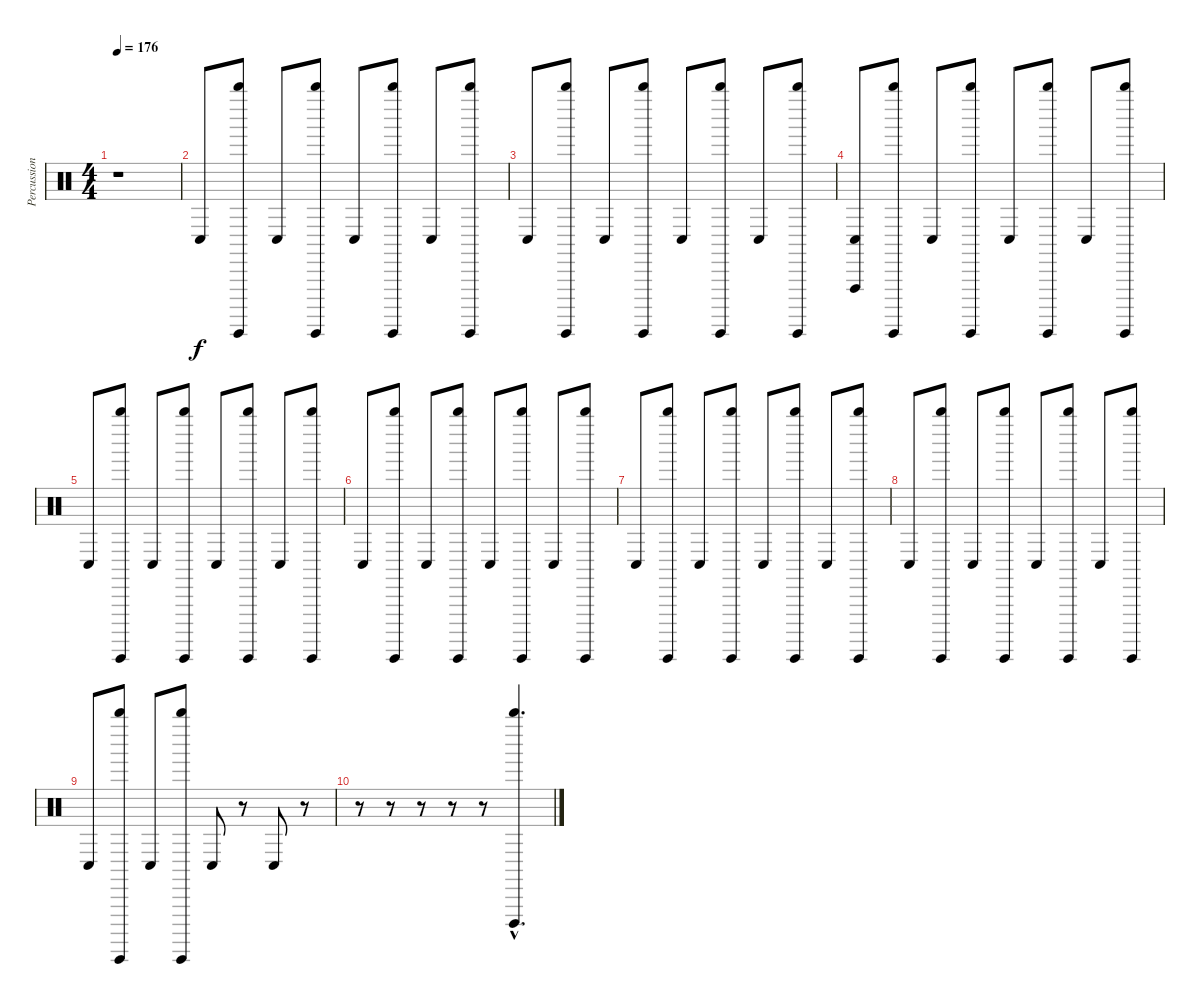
\track ("Percussion" "Percussion") {instrument percussion}
\staff {score}
\articulation defaults
\ts (4 4)
\tempo 176
\clef neutral
\ks c
r.1{dy f} |
"Conga low (hit)".8 ("Guiro (hit)" "Whistle high (hit)").8 "Conga low (hit)".8 ("Guiro (hit)" "Whistle high (hit)").8 "Conga low (hit)".8 ("Guiro (hit)" "Whistle high (hit)").8 "Conga low (hit)".8 ("Guiro (hit)" "Whistle high (hit)").8 |
"Conga low (hit)".8 ("Guiro (hit)" "Whistle high (hit)").8 "Conga low (hit)".8 ("Guiro (hit)" "Whistle high (hit)").8 "Conga low (hit)".8 ("Guiro (hit)" "Whistle high (hit)").8 "Conga low (hit)".8 ("Guiro (hit)" "Whistle high (hit)").8 |
("Conga low (hit)" "Vibraslap (hit)").8 ("Guiro (hit)" "Whistle high (hit)").8 "Conga low (hit)".8 ("Guiro (hit)" "Whistle high (hit)").8 "Conga low (hit)".8 ("Guiro (hit)" "Whistle high (hit)").8 "Conga low (hit)".8 ("Guiro (hit)" "Whistle high (hit)").8 |
"Conga low (hit)".8 ("Guiro (hit)" "Whistle high (hit)").8 "Conga low (hit)".8 ("Guiro (hit)" "Whistle high (hit)").8 "Conga low (hit)".8 ("Guiro (hit)" "Whistle high (hit)").8 "Conga low (hit)".8 ("Guiro (hit)" "Whistle high (hit)").8 |
"Conga low (hit)".8 ("Guiro (hit)" "Whistle high (hit)").8 "Conga low (hit)".8 ("Guiro (hit)" "Whistle high (hit)").8 "Conga low (hit)".8 ("Guiro (hit)" "Whistle high (hit)").8 "Conga low (hit)".8 ("Guiro (hit)" "Whistle high (hit)").8 |
"Conga low (hit)".8 ("Guiro (hit)" "Whistle high (hit)").8 "Conga low (hit)".8 ("Guiro (hit)" "Whistle high (hit)").8 "Conga low (hit)".8 ("Guiro (hit)" "Whistle high (hit)").8 "Conga low (hit)".8 ("Guiro (hit)" "Whistle high (hit)").8 |
"Conga low (hit)".8 ("Guiro (hit)" "Whistle high (hit)").8 "Conga low (hit)".8 ("Guiro (hit)" "Whistle high (hit)").8 "Conga low (hit)".8 ("Guiro (hit)" "Whistle high (hit)").8 "Conga low (hit)".8 ("Guiro (hit)" "Whistle high (hit)").8 |
"Conga low (hit)".8 ("Guiro (hit)" "Whistle high (hit)").8 "Conga low (hit)".8 ("Guiro (hit)" "Whistle high (hit)").8 "Conga low (hit)".8 r.8 "Conga low (hit)".8 r.8 |
r.8 r.8 r.8 r.8 r.8 ("Whistle high (hit)"{hac} "Cuica (open)"{hac}).4{d}
